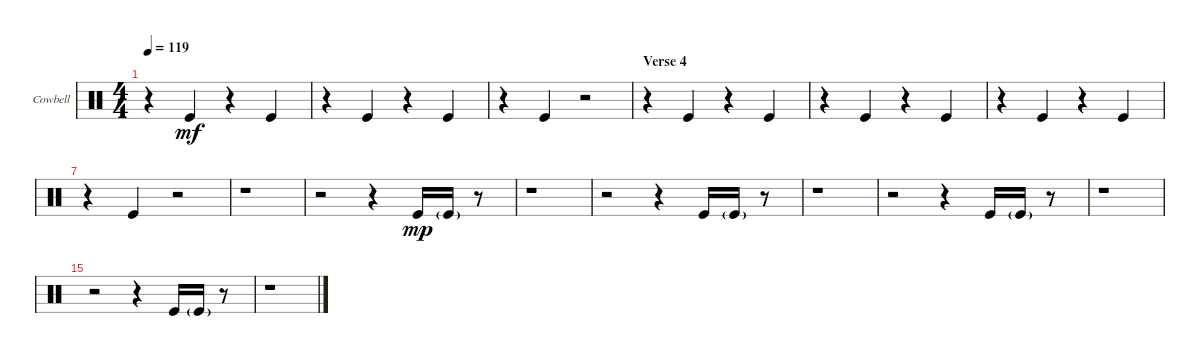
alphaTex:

\defaultSystemsLayout 4
\bracketExtendMode groupsimilarinstruments
\useSystemSignSeparator
\multiBarRest
\multiTrackTrackNamePolicy allsystems
\firstSystemTrackNameMode fullname
\firstSystemTrackNameOrientation horizontal
\otherSystemsTrackNameOrientation horizontal
\defaultBarNumberDisplay FirstOfSystem
\track ("Cowbell" "Cowbell") {multiBarRest instrument percussion}
\staff {score}
\articulation defaults
\ts (4 4)
\tempo 119
\clef neutral
\ks aminor
r.4{dy mf} "Kick (hit)".4 r.4 "Kick (hit)".4 |
r.4 "Kick (hit)".4 r.4 "Kick (hit)".4 |
r.4 "Kick (hit)".4 r.2 |
\section ("" "Verse 4")
r.4 "Kick (hit)".4 r.4 "Kick (hit)".4 |
r.4 "Kick (hit)".4 r.4 "Kick (hit)".4 |
r.4 "Kick (hit)".4 r.4 "Kick (hit)".4 |
r.4 "Kick (hit)".4 r.2 |
r.1 |
r.2 r.4 "Kick (hit)".16{dy mp} "Kick (hit)"{g}.16 r.8 |
r.1 |
r.2 r.4 "Kick (hit)".16 "Kick (hit)"{g}.16 r.8 |
r.1 |
r.2 r.4 "Kick (hit)".16 "Kick (hit)"{g}.16 r.8 |
r.1 |
r.2 r.4 "Kick (hit)".16 "Kick (hit)"{g}.16 r.8 |
r.1
